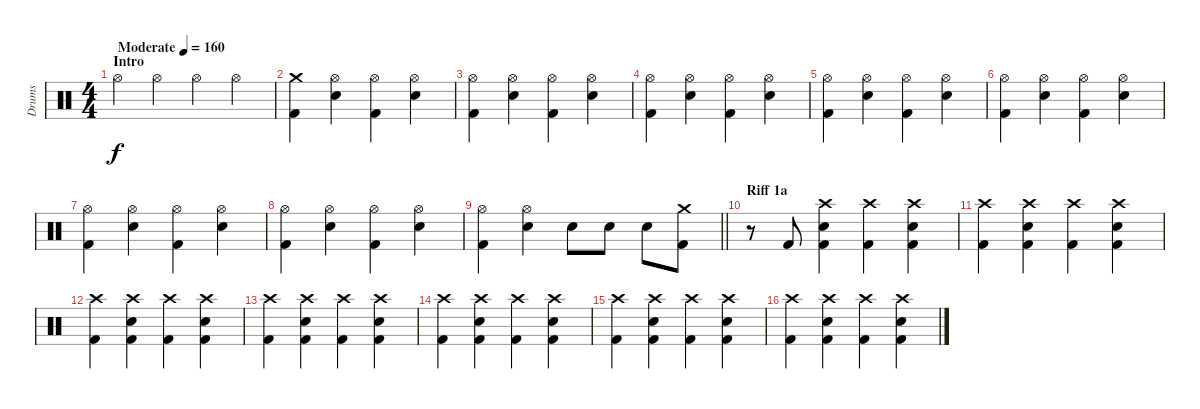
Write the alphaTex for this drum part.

\track ("Drums" "Drums") {instrument percussion}
\staff {score}
\articulation defaults
\ts (4 4)
\section ("" "Intro")
\tempo (160 "Moderate")
\clef neutral
\ks c "Hi-Hat (open)".4{dy f} "Hi-Hat (open)".4 "Hi-Hat (open)".4 "Hi-Hat (open)".4
|
("Crash medium (hit)" "Kick (hit) 2").4{volume 8} ("Electric Snare (hit)" "Hi-Hat (open)").4 ("Hi-Hat (open)" "Kick (hit) 2").4 ("Hi-Hat (open)" "Electric Snare (hit)").4 |
("Hi-Hat (open)" "Kick (hit) 2").4 ("Hi-Hat (open)" "Electric Snare (hit)").4 ("Hi-Hat (open)" "Kick (hit) 2").4 ("Hi-Hat (open)" "Electric Snare (hit)").4 |
("Hi-Hat (open)" "Kick (hit) 2").4 ("Hi-Hat (open)" "Electric Snare (hit)").4 ("Hi-Hat (open)" "Kick (hit) 2").4 ("Hi-Hat (open)" "Electric Snare (hit)").4 |
("Hi-Hat (open)" "Kick (hit) 2").4 ("Hi-Hat (open)" "Electric Snare (hit)").4 ("Hi-Hat (open)" "Kick (hit) 2").4 ("Hi-Hat (open)" "Electric Snare (hit)").4 |
("Hi-Hat (open)" "Kick (hit) 2").4 ("Hi-Hat (open)" "Electric Snare (hit)").4 ("Hi-Hat (open)" "Kick (hit) 2").4 ("Hi-Hat (open)" "Electric Snare (hit)").4 |
("Hi-Hat (open)" "Kick (hit) 2").4 ("Hi-Hat (open)" "Electric Snare (hit)").4 ("Hi-Hat (open)" "Kick (hit) 2").4 ("Hi-Hat (open)" "Electric Snare (hit)").4 |
("Hi-Hat (open)" "Kick (hit) 2").4 ("Hi-Hat (open)" "Electric Snare (hit)").4 ("Hi-Hat (open)" "Kick (hit) 2").4 ("Hi-Hat (open)" "Electric Snare (hit)").4 |
\barLineRight lightlight
("Hi-Hat (open)" "Kick (hit) 2").4 ("Hi-Hat (open)" "Electric Snare (hit)").4 "Electric Snare (hit)".8{volume 13} "Electric Snare (hit)".8 "Electric Snare (hit)".8 ("Crash medium (hit)" "Kick (hit) 2").8 |
\section ("" "Riff 1a")
r.8 "Kick (hit) 2".8 ("Crash high (hit)" "Electric Snare (hit)" "Kick (hit) 2").4 ("Kick (hit) 2" "Crash high (hit)").4 ("Kick (hit) 2" "Electric Snare (hit)" "Crash high (hit)").4 |
("Kick (hit) 2" "Crash high (hit)").4 ("Kick (hit) 2" "Electric Snare (hit)" "Crash high (hit)").4 ("Kick (hit) 2" "Crash high (hit)").4 ("Kick (hit) 2" "Electric Snare (hit)" "Crash high (hit)").4 |
("Kick (hit) 2" "Crash high (hit)").4 ("Kick (hit) 2" "Electric Snare (hit)" "Crash high (hit)").4 ("Kick (hit) 2" "Crash high (hit)").4 ("Kick (hit) 2" "Electric Snare (hit)" "Crash high (hit)").4 |
("Kick (hit) 2" "Crash high (hit)").4 ("Kick (hit) 2" "Electric Snare (hit)" "Crash high (hit)").4 ("Kick (hit) 2" "Crash high (hit)").4 ("Kick (hit) 2" "Electric Snare (hit)" "Crash high (hit)").4 |
("Kick (hit) 2" "Crash high (hit)").4 ("Kick (hit) 2" "Electric Snare (hit)" "Crash high (hit)").4 ("Kick (hit) 2" "Crash high (hit)").4 ("Kick (hit) 2" "Electric Snare (hit)" "Crash high (hit)").4 |
("Kick (hit) 2" "Crash high (hit)").4 ("Kick (hit) 2" "Electric Snare (hit)" "Crash high (hit)").4 ("Kick (hit) 2" "Crash high (hit)").4 ("Kick (hit) 2" "Electric Snare (hit)" "Crash high (hit)").4 |
("Kick (hit) 2" "Crash high (hit)").4 ("Kick (hit) 2" "Electric Snare (hit)" "Crash high (hit)").4 ("Kick (hit) 2" "Crash high (hit)").4 ("Kick (hit) 2" "Electric Snare (hit)" "Crash high (hit)").4
